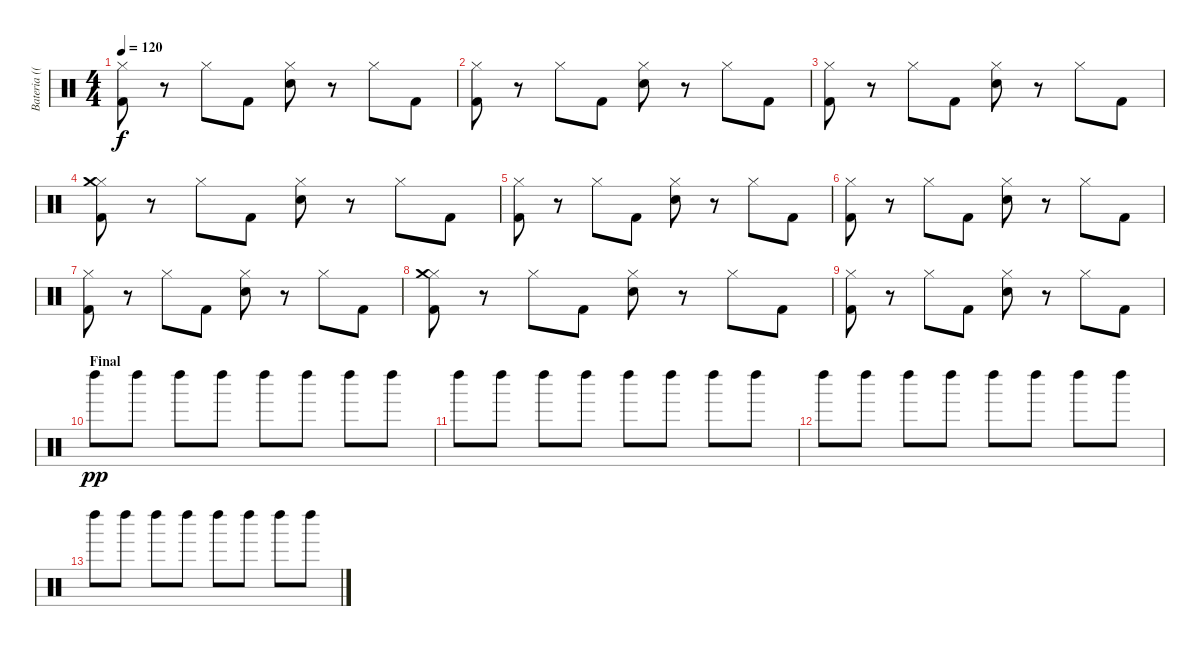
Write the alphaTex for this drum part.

\track ("Bateria ((Matt))" "Bateria ((") {instrument percussion}
\staff {score}
\articulation defaults
\ts (4 4)
\tempo 120
\clef neutral
\ks c
("Hi-Hat (closed)" "Kick (hit) 2").8{dy f} r.8 "Hi-Hat (closed)".8 "Kick (hit) 2".8 ("Hi-Hat (closed)" "Electric Snare (hit)").8 r.8 "Hi-Hat (closed)".8 "Kick (hit) 2".8 |
("Hi-Hat (closed)" "Kick (hit) 2").8 r.8 "Hi-Hat (closed)".8 "Kick (hit) 2".8 ("Hi-Hat (closed)" "Electric Snare (hit)").8 r.8 "Hi-Hat (closed)".8 "Kick (hit) 2".8 |
("Hi-Hat (closed)" "Kick (hit) 2").8 r.8 "Hi-Hat (closed)".8 "Kick (hit) 2".8 ("Hi-Hat (closed)" "Electric Snare (hit)").8 r.8 "Hi-Hat (closed)".8 "Kick (hit) 2".8 |
("Hi-Hat (closed)" "Crash medium (hit)" "Kick (hit) 2").8 r.8 "Hi-Hat (closed)".8 "Kick (hit) 2".8 ("Hi-Hat (closed)" "Electric Snare (hit)").8 r.8 "Hi-Hat (closed)".8 "Kick (hit) 2".8 |
("Hi-Hat (closed)" "Kick (hit) 2").8 r.8 "Hi-Hat (closed)".8 "Kick (hit) 2".8 ("Hi-Hat (closed)" "Electric Snare (hit)").8 r.8 "Hi-Hat (closed)".8 "Kick (hit) 2".8 |
("Hi-Hat (closed)" "Kick (hit) 2").8 r.8 "Hi-Hat (closed)".8 "Kick (hit) 2".8 ("Hi-Hat (closed)" "Electric Snare (hit)").8 r.8 "Hi-Hat (closed)".8 "Kick (hit) 2".8 |
("Hi-Hat (closed)" "Kick (hit) 2").8 r.8 "Hi-Hat (closed)".8 "Kick (hit) 2".8 ("Hi-Hat (closed)" "Electric Snare (hit)").8 r.8 "Hi-Hat (closed)".8 "Kick (hit) 2".8 |
("Hi-Hat (closed)" "Crash medium (hit)" "Kick (hit) 2").8 r.8 "Hi-Hat (closed)".8 "Kick (hit) 2".8 ("Hi-Hat (closed)" "Electric Snare (hit)").8 r.8 "Hi-Hat (closed)".8 "Kick (hit) 2".8 |
("Hi-Hat (closed)" "Kick (hit) 2").8 r.8 "Hi-Hat (closed)".8 "Kick (hit) 2".8 ("Hi-Hat (closed)" "Electric Snare (hit)").8 r.8 "Hi-Hat (closed)".8 "Kick (hit) 2".8 |
\section ("" "Final")
"Left Maraca (hit)".8{dy pp} "Left Maraca (hit)".8 "Left Maraca (hit)".8 "Left Maraca (hit)".8 "Left Maraca (hit)".8 "Left Maraca (hit)".8 "Left Maraca (hit)".8 "Left Maraca (hit)".8 |
"Left Maraca (hit)".8 "Left Maraca (hit)".8 "Left Maraca (hit)".8 "Left Maraca (hit)".8 "Left Maraca (hit)".8 "Left Maraca (hit)".8 "Left Maraca (hit)".8 "Left Maraca (hit)".8 |
"Left Maraca (hit)".8 "Left Maraca (hit)".8 "Left Maraca (hit)".8 "Left Maraca (hit)".8 "Left Maraca (hit)".8 "Left Maraca (hit)".8 "Left Maraca (hit)".8 "Left Maraca (hit)".8 |
"Left Maraca (hit)".8 "Left Maraca (hit)".8 "Left Maraca (hit)".8 "Left Maraca (hit)".8 "Left Maraca (hit)".8 "Left Maraca (hit)".8 "Left Maraca (hit)".8 "Left Maraca (hit)".8
